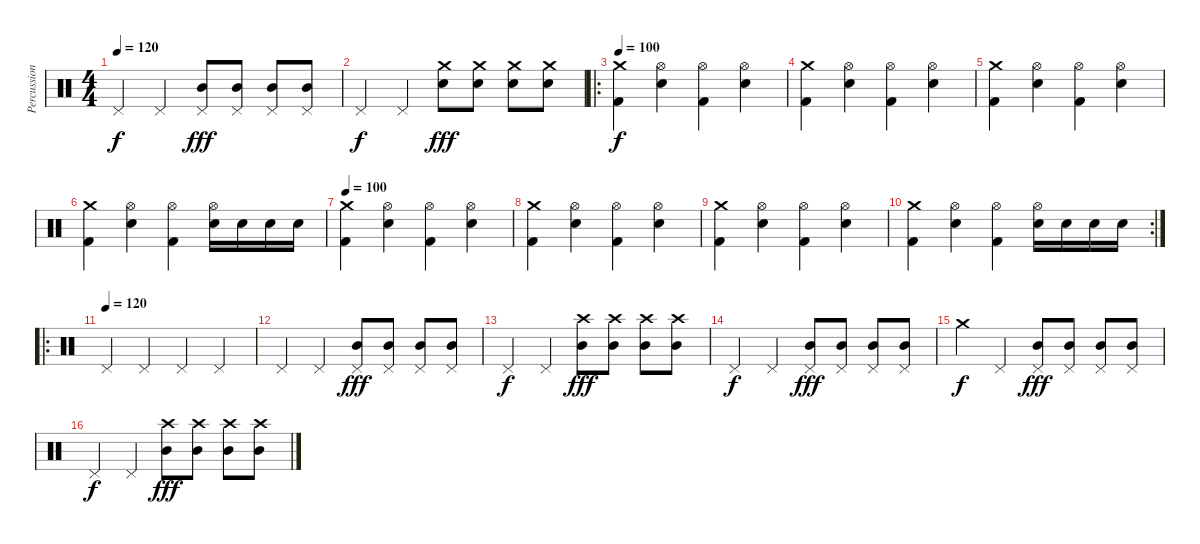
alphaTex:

\track ("Percussion" "Percussion") {instrument percussion}
\staff {score}
\articulation defaults
\ts (4 4)
\tempo 120
\clef neutral
\ks c "Pedal Hi-Hat (hit)".4{dy f} "Pedal Hi-Hat (hit)".4
("Pedal Hi-Hat (hit)" "Mid Tom (hit)").8{dy fff} ("Pedal Hi-Hat (hit)" "Mid Tom (hit)").8 ("Pedal Hi-Hat (hit)" "Mid Tom (hit)").8 ("Pedal Hi-Hat (hit)" "Mid Tom (hit)").8 |
"Pedal Hi-Hat (hit)".4{dy f} "Pedal Hi-Hat (hit)".4 ("Crash medium (hit)" "Electric Snare (hit)").8{dy fff} ("Crash medium (hit)" "Electric Snare (hit)").8 ("Crash medium (hit)" "Electric Snare (hit)").8 ("Crash medium (hit)" "Electric Snare (hit)").8 |
\ro
\tempo 100
("Crash medium (hit)" "Kick (hit) 2").4{dy f} ("Hi-Hat (open)" "Electric Snare (hit)").4 ("Hi-Hat (open)" "Kick (hit) 2").4 ("Hi-Hat (open)" "Electric Snare (hit)").4 |
("Crash medium (hit)" "Kick (hit) 2").4 ("Hi-Hat (open)" "Electric Snare (hit)").4 ("Hi-Hat (open)" "Kick (hit) 2").4 ("Hi-Hat (open)" "Electric Snare (hit)").4 |
("Crash medium (hit)" "Kick (hit) 2").4 ("Hi-Hat (open)" "Electric Snare (hit)").4 ("Hi-Hat (open)" "Kick (hit) 2").4 ("Hi-Hat (open)" "Electric Snare (hit)").4 |
("Crash medium (hit)" "Kick (hit) 2").4 ("Hi-Hat (open)" "Electric Snare (hit)").4 ("Hi-Hat (open)" "Kick (hit) 2").4 ("Hi-Hat (open)" "Electric Snare (hit)").16 "Electric Snare (hit)".16 "Electric Snare (hit)".16 "Electric Snare (hit)".16 |
\tempo 100
("Crash medium (hit)" "Kick (hit) 2").4 ("Hi-Hat (open)" "Electric Snare (hit)").4 ("Hi-Hat (open)" "Kick (hit) 2").4 ("Hi-Hat (open)" "Electric Snare (hit)").4 |
("Crash medium (hit)" "Kick (hit) 2").4 ("Hi-Hat (open)" "Electric Snare (hit)").4 ("Hi-Hat (open)" "Kick (hit) 2").4 ("Hi-Hat (open)" "Electric Snare (hit)").4 |
("Crash medium (hit)" "Kick (hit) 2").4 ("Hi-Hat (open)" "Electric Snare (hit)").4 ("Hi-Hat (open)" "Kick (hit) 2").4 ("Hi-Hat (open)" "Electric Snare (hit)").4 |
\rc 2
("Crash medium (hit)" "Kick (hit) 2").4 ("Hi-Hat (open)" "Electric Snare (hit)").4 ("Hi-Hat (open)" "Kick (hit) 2").4 ("Hi-Hat (open)" "Electric Snare (hit)").16 "Electric Snare (hit)".16 "Electric Snare (hit)".16 "Electric Snare (hit)".16 |
\ro
\tempo (120)
"Pedal Hi-Hat (hit)".4 "Pedal Hi-Hat (hit)".4 "Pedal Hi-Hat (hit)".4 "Pedal Hi-Hat (hit)".4 |
"Pedal Hi-Hat (hit)".4 "Pedal Hi-Hat (hit)".4 ("Pedal Hi-Hat (hit)" "Mid Tom (hit)").8{dy fff} ("Pedal Hi-Hat (hit)" "Mid Tom (hit)").8 ("Pedal Hi-Hat (hit)" "Mid Tom (hit)").8 ("Pedal Hi-Hat (hit)" "Mid Tom (hit)").8 |
"Pedal Hi-Hat (hit)".4{dy f} "Pedal Hi-Hat (hit)".4 ("Crash high (hit)" "Mid Tom (hit)").8{dy fff} ("Crash high (hit)" "Mid Tom (hit)").8 ("Crash high (hit)" "Mid Tom (hit)").8 ("Crash high (hit)" "Mid Tom (hit)").8 |
"Pedal Hi-Hat (hit)".4{dy f} "Pedal Hi-Hat (hit)".4 ("Pedal Hi-Hat (hit)" "Mid Tom (hit)").8{dy fff} ("Pedal Hi-Hat (hit)" "Mid Tom (hit)").8 ("Pedal Hi-Hat (hit)" "Mid Tom (hit)").8 ("Pedal Hi-Hat (hit)" "Mid Tom (hit)").8 |
"Crash medium (hit)".4{dy f} "Pedal Hi-Hat (hit)".4 ("Pedal Hi-Hat (hit)" "Mid Tom (hit)").8{dy fff} ("Pedal Hi-Hat (hit)" "Mid Tom (hit)").8 ("Pedal Hi-Hat (hit)" "Mid Tom (hit)").8 ("Pedal Hi-Hat (hit)" "Mid Tom (hit)").8 |
"Pedal Hi-Hat (hit)".4{dy f} "Pedal Hi-Hat (hit)".4 ("Crash high (hit)" "Mid Tom (hit)").8{dy fff} ("Crash high (hit)" "Mid Tom (hit)").8 ("Crash high (hit)" "Mid Tom (hit)").8 ("Crash high (hit)" "Mid Tom (hit)").8
